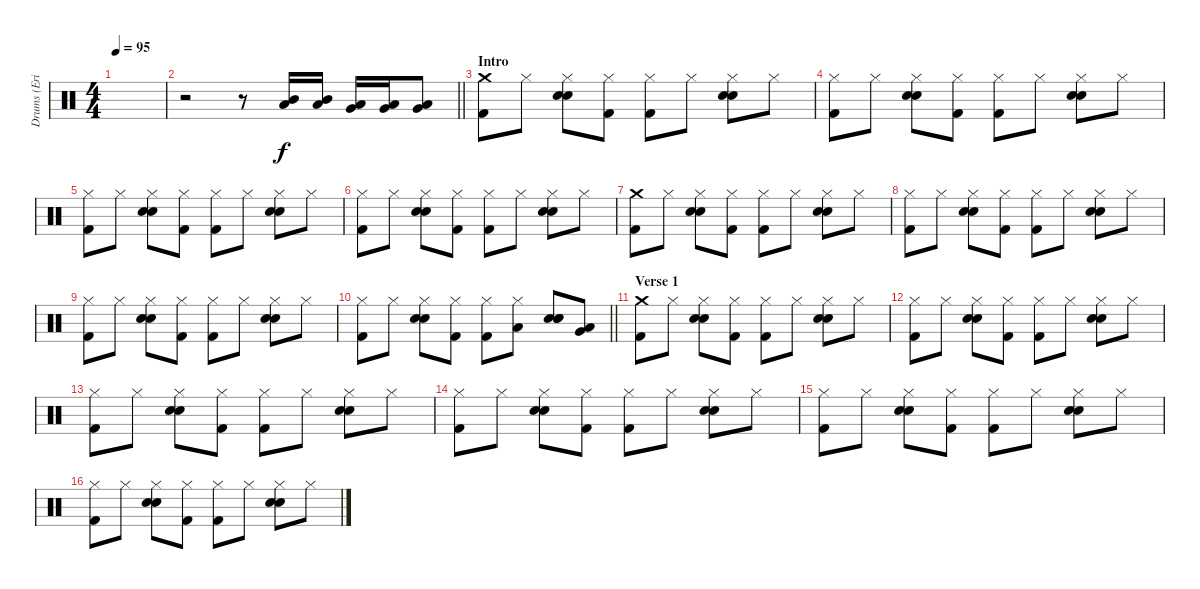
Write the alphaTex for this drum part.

\track ("Drums (Eric Carr)" "Drums (Eri") {instrument percussion}
\staff {score}
\articulation defaults
\ts (4 4)
\tempo 95
\clef neutral
\ks c
|
\barLineRight lightlight
r.2 r.8 ("Mid Tom (hit)" "Low Tom (hit)").16 ("Mid Tom (hit)" "Low Tom (hit)").16 ("Low Tom (hit)" "Very Low Tom (hit)").16 ("Low Tom (hit)" "Very Low Tom (hit)").16 ("Very Low Tom (hit)" "Low Floor Tom (hit)").8 |
\section ("" "Intro")
("Crash medium (hit)" "Kick (hit) 2").8 "Hi-Hat (closed)".8 ("Hi-Hat (closed)" "Electric Snare (hit)" "Snare (hit) 2").8 ("Hi-Hat (closed)" "Kick (hit) 2").8 ("Hi-Hat (closed)" "Kick (hit) 2").8 "Hi-Hat (closed)".8 ("Hi-Hat (closed)" "Electric Snare (hit)" "Snare (hit) 2").8 "Hi-Hat (closed)".8 |
("Hi-Hat (closed)" "Kick (hit) 2").8 "Hi-Hat (closed)".8 ("Hi-Hat (closed)" "Electric Snare (hit)" "Snare (hit) 2").8 ("Hi-Hat (closed)" "Kick (hit) 2").8 ("Hi-Hat (closed)" "Kick (hit) 2").8 "Hi-Hat (closed)".8 ("Hi-Hat (closed)" "Electric Snare (hit)" "Snare (hit) 2").8 "Hi-Hat (closed)".8 |
("Hi-Hat (closed)" "Kick (hit) 2").8 "Hi-Hat (closed)".8 ("Hi-Hat (closed)" "Electric Snare (hit)" "Snare (hit) 2").8 ("Hi-Hat (closed)" "Kick (hit) 2").8 ("Hi-Hat (closed)" "Kick (hit) 2").8 "Hi-Hat (closed)".8 ("Hi-Hat (closed)" "Electric Snare (hit)" "Snare (hit) 2").8 "Hi-Hat (closed)".8 |
("Hi-Hat (closed)" "Kick (hit) 2").8 "Hi-Hat (closed)".8 ("Hi-Hat (closed)" "Electric Snare (hit)" "Snare (hit) 2").8 ("Hi-Hat (closed)" "Kick (hit) 2").8 ("Hi-Hat (closed)" "Kick (hit) 2").8 "Hi-Hat (closed)".8 ("Hi-Hat (closed)" "Electric Snare (hit)" "Snare (hit) 2").8 "Hi-Hat (closed)".8 |
("Crash medium (hit)" "Kick (hit) 2").8 "Hi-Hat (closed)".8 ("Hi-Hat (closed)" "Electric Snare (hit)" "Snare (hit) 2").8 ("Hi-Hat (closed)" "Kick (hit) 2").8 ("Hi-Hat (closed)" "Kick (hit) 2").8 "Hi-Hat (closed)".8 ("Hi-Hat (closed)" "Electric Snare (hit)" "Snare (hit) 2").8 "Hi-Hat (closed)".8 |
("Hi-Hat (closed)" "Kick (hit) 2").8 "Hi-Hat (closed)".8 ("Hi-Hat (closed)" "Electric Snare (hit)" "Snare (hit) 2").8 ("Hi-Hat (closed)" "Kick (hit) 2").8 ("Hi-Hat (closed)" "Kick (hit) 2").8 "Hi-Hat (closed)".8 ("Hi-Hat (closed)" "Electric Snare (hit)" "Snare (hit) 2").8 "Hi-Hat (closed)".8 |
("Hi-Hat (closed)" "Kick (hit) 2").8 "Hi-Hat (closed)".8 ("Hi-Hat (closed)" "Electric Snare (hit)" "Snare (hit) 2").8 ("Hi-Hat (closed)" "Kick (hit) 2").8 ("Hi-Hat (closed)" "Kick (hit) 2").8 "Hi-Hat (closed)".8 ("Hi-Hat (closed)" "Electric Snare (hit)" "Snare (hit) 2").8 "Hi-Hat (closed)".8 |
\barLineRight lightlight
("Hi-Hat (closed)" "Kick (hit) 2").8 "Hi-Hat (closed)".8 ("Hi-Hat (closed)" "Electric Snare (hit)" "Snare (hit) 2").8 ("Hi-Hat (closed)" "Kick (hit) 2").8 ("Hi-Hat (closed)" "Kick (hit) 2").8 ("Hi-Hat (closed)" "Low Tom (hit)").8 ("Snare (hit) 2" "Electric Snare (hit)" "Snare (hit) 2").8 ("Very Low Tom (hit)" "Low Floor Tom (hit)").8 |
\section ("" "Verse 1")
("Crash medium (hit)" "Kick (hit) 2").8 "Hi-Hat (closed)".8 ("Hi-Hat (closed)" "Electric Snare (hit)" "Snare (hit) 2").8 ("Hi-Hat (closed)" "Kick (hit) 2").8 ("Hi-Hat (closed)" "Kick (hit) 2").8 "Hi-Hat (closed)".8 ("Hi-Hat (closed)" "Electric Snare (hit)" "Snare (hit) 2").8 "Hi-Hat (closed)".8 |
("Hi-Hat (closed)" "Kick (hit) 2").8 "Hi-Hat (closed)".8 ("Hi-Hat (closed)" "Electric Snare (hit)" "Snare (hit) 2").8 ("Hi-Hat (closed)" "Kick (hit) 2").8 ("Hi-Hat (closed)" "Kick (hit) 2").8 "Hi-Hat (closed)".8 ("Hi-Hat (closed)" "Electric Snare (hit)" "Snare (hit) 2").8 "Hi-Hat (closed)".8 |
("Hi-Hat (closed)" "Kick (hit) 2").8 "Hi-Hat (closed)".8 ("Hi-Hat (closed)" "Electric Snare (hit)" "Snare (hit) 2").8 ("Hi-Hat (closed)" "Kick (hit) 2").8 ("Hi-Hat (closed)" "Kick (hit) 2").8 "Hi-Hat (closed)".8 ("Hi-Hat (closed)" "Electric Snare (hit)" "Snare (hit) 2").8 "Hi-Hat (closed)".8 |
("Hi-Hat (closed)" "Kick (hit) 2").8 "Hi-Hat (closed)".8 ("Hi-Hat (closed)" "Electric Snare (hit)" "Snare (hit) 2").8 ("Hi-Hat (closed)" "Kick (hit) 2").8 ("Hi-Hat (closed)" "Kick (hit) 2").8 "Hi-Hat (closed)".8 ("Hi-Hat (closed)" "Electric Snare (hit)" "Snare (hit) 2").8 "Hi-Hat (closed)".8 |
("Hi-Hat (closed)" "Kick (hit) 2").8 "Hi-Hat (closed)".8 ("Hi-Hat (closed)" "Electric Snare (hit)" "Snare (hit) 2").8 ("Hi-Hat (closed)" "Kick (hit) 2").8 ("Hi-Hat (closed)" "Kick (hit) 2").8 "Hi-Hat (closed)".8 ("Hi-Hat (closed)" "Electric Snare (hit)" "Snare (hit) 2").8 "Hi-Hat (closed)".8 |
("Hi-Hat (closed)" "Kick (hit) 2").8 "Hi-Hat (closed)".8 ("Hi-Hat (closed)" "Electric Snare (hit)" "Snare (hit) 2").8 ("Hi-Hat (closed)" "Kick (hit) 2").8 ("Hi-Hat (closed)" "Kick (hit) 2").8 "Hi-Hat (closed)".8 ("Hi-Hat (closed)" "Electric Snare (hit)" "Snare (hit) 2").8 "Hi-Hat (closed)".8
